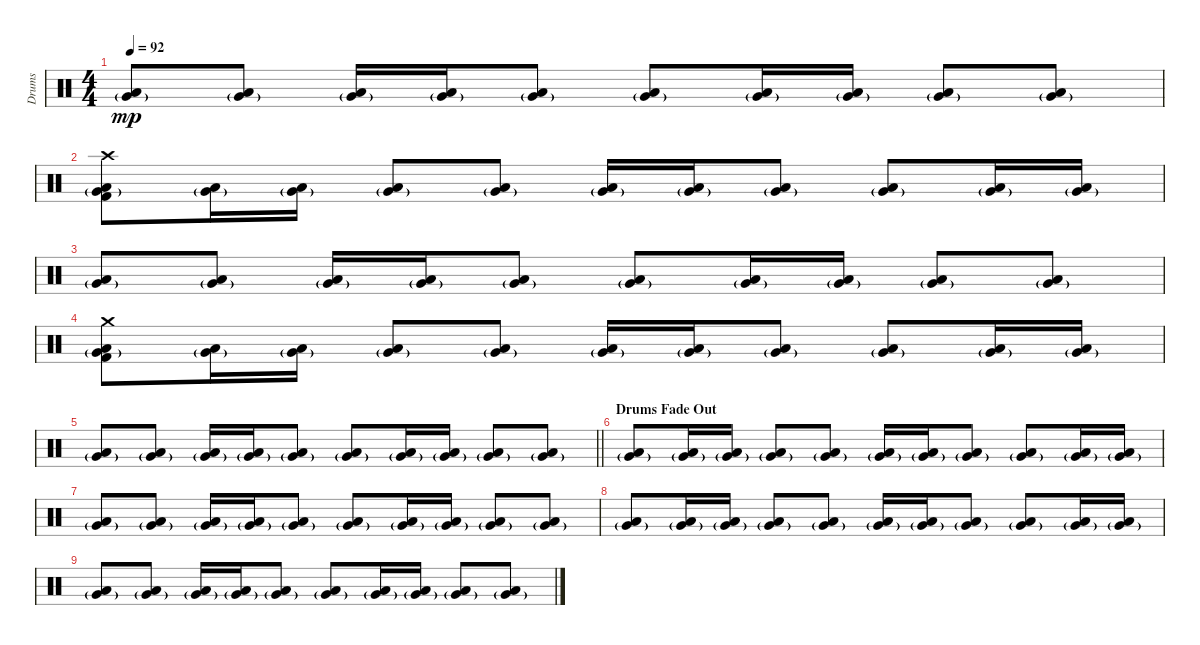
\track ("Drums" "Drums") {instrument percussion}
\staff {score}
\articulation defaults
\ts (4 4)
\tempo 92
\clef neutral
\ks c
("Very Low Tom (hit)"{g} "Low Floor Tom (hit)").8{dy mp} ("Very Low Tom (hit)"{g} "Low Floor Tom (hit)").8 ("Very Low Tom (hit)"{g} "Low Floor Tom (hit)").16 ("Very Low Tom (hit)"{g} "Low Floor Tom (hit)").16 ("Very Low Tom (hit)"{g} "Low Floor Tom (hit)").8 ("Very Low Tom (hit)"{g} "Low Floor Tom (hit)").8 ("Very Low Tom (hit)"{g} "Low Floor Tom (hit)").16 ("Very Low Tom (hit)"{g} "Low Floor Tom (hit)").16 ("Very Low Tom (hit)"{g} "Low Floor Tom (hit)").8 ("Very Low Tom (hit)"{g} "Low Floor Tom (hit)").8 |
("Kick (hit) 2" "Crash high (hit)" "Very Low Tom (hit)"{g} "Low Floor Tom (hit)").8 ("Very Low Tom (hit)"{g} "Low Floor Tom (hit)").16 ("Very Low Tom (hit)"{g} "Low Floor Tom (hit)").16 ("Very Low Tom (hit)"{g} "Low Floor Tom (hit)").8 ("Very Low Tom (hit)"{g} "Low Floor Tom (hit)").8 ("Very Low Tom (hit)"{g} "Low Floor Tom (hit)").16 ("Very Low Tom (hit)"{g} "Low Floor Tom (hit)").16 ("Very Low Tom (hit)"{g} "Low Floor Tom (hit)").8 ("Very Low Tom (hit)"{g} "Low Floor Tom (hit)").8 ("Very Low Tom (hit)"{g} "Low Floor Tom (hit)").16 ("Very Low Tom (hit)"{g} "Low Floor Tom (hit)").16 |
("Very Low Tom (hit)"{g} "Low Floor Tom (hit)").8 ("Very Low Tom (hit)"{g} "Low Floor Tom (hit)").8 ("Very Low Tom (hit)"{g} "Low Floor Tom (hit)").16 ("Very Low Tom (hit)"{g} "Low Floor Tom (hit)").16 ("Very Low Tom (hit)"{g} "Low Floor Tom (hit)").8 ("Very Low Tom (hit)"{g} "Low Floor Tom (hit)").8 ("Very Low Tom (hit)"{g} "Low Floor Tom (hit)").16 ("Very Low Tom (hit)"{g} "Low Floor Tom (hit)").16 ("Very Low Tom (hit)"{g} "Low Floor Tom (hit)").8 ("Very Low Tom (hit)"{g} "Low Floor Tom (hit)").8 |
("Kick (hit) 2" "Crash medium (hit)" "Very Low Tom (hit)"{g} "Low Floor Tom (hit)").8 ("Very Low Tom (hit)"{g} "Low Floor Tom (hit)").16 ("Very Low Tom (hit)"{g} "Low Floor Tom (hit)").16 ("Very Low Tom (hit)"{g} "Low Floor Tom (hit)").8 ("Very Low Tom (hit)"{g} "Low Floor Tom (hit)").8 ("Very Low Tom (hit)"{g} "Low Floor Tom (hit)").16 ("Very Low Tom (hit)"{g} "Low Floor Tom (hit)").16 ("Very Low Tom (hit)"{g} "Low Floor Tom (hit)").8 ("Very Low Tom (hit)"{g} "Low Floor Tom (hit)").8 ("Very Low Tom (hit)"{g} "Low Floor Tom (hit)").16 ("Very Low Tom (hit)"{g} "Low Floor Tom (hit)").16 |
\barLineRight lightlight
("Very Low Tom (hit)"{g} "Low Floor Tom (hit)").8 ("Very Low Tom (hit)"{g} "Low Floor Tom (hit)").8 ("Very Low Tom (hit)"{g} "Low Floor Tom (hit)").16 ("Very Low Tom (hit)"{g} "Low Floor Tom (hit)").16 ("Very Low Tom (hit)"{g} "Low Floor Tom (hit)").8 ("Very Low Tom (hit)"{g} "Low Floor Tom (hit)").8 ("Very Low Tom (hit)"{g} "Low Floor Tom (hit)").16 ("Very Low Tom (hit)"{g} "Low Floor Tom (hit)").16 ("Very Low Tom (hit)"{g} "Low Floor Tom (hit)").8 ("Very Low Tom (hit)"{g} "Low Floor Tom (hit)").8 |
\section ("" "Drums Fade Out")
("Very Low Tom (hit)"{g} "Low Floor Tom (hit)").8 ("Very Low Tom (hit)"{g} "Low Floor Tom (hit)").16 ("Very Low Tom (hit)"{g} "Low Floor Tom (hit)").16 ("Very Low Tom (hit)"{g} "Low Floor Tom (hit)").8 ("Very Low Tom (hit)"{g} "Low Floor Tom (hit)").8 ("Very Low Tom (hit)"{g} "Low Floor Tom (hit)").16 ("Very Low Tom (hit)"{g} "Low Floor Tom (hit)").16 ("Very Low Tom (hit)"{g} "Low Floor Tom (hit)").8 ("Very Low Tom (hit)"{g} "Low Floor Tom (hit)").8 ("Very Low Tom (hit)"{g} "Low Floor Tom (hit)").16 ("Very Low Tom (hit)"{g} "Low Floor Tom (hit)").16 |
("Very Low Tom (hit)"{g} "Low Floor Tom (hit)").8 ("Very Low Tom (hit)"{g} "Low Floor Tom (hit)").8 ("Very Low Tom (hit)"{g} "Low Floor Tom (hit)").16 ("Very Low Tom (hit)"{g} "Low Floor Tom (hit)").16 ("Very Low Tom (hit)"{g} "Low Floor Tom (hit)").8 ("Very Low Tom (hit)"{g} "Low Floor Tom (hit)").8 ("Very Low Tom (hit)"{g} "Low Floor Tom (hit)").16 ("Very Low Tom (hit)"{g} "Low Floor Tom (hit)").16 ("Very Low Tom (hit)"{g} "Low Floor Tom (hit)").8 ("Very Low Tom (hit)"{g} "Low Floor Tom (hit)").8 |
("Very Low Tom (hit)"{g} "Low Floor Tom (hit)").8 ("Very Low Tom (hit)"{g} "Low Floor Tom (hit)").16 ("Very Low Tom (hit)"{g} "Low Floor Tom (hit)").16 ("Very Low Tom (hit)"{g} "Low Floor Tom (hit)").8 ("Very Low Tom (hit)"{g} "Low Floor Tom (hit)").8 ("Very Low Tom (hit)"{g} "Low Floor Tom (hit)").16 ("Very Low Tom (hit)"{g} "Low Floor Tom (hit)").16 ("Very Low Tom (hit)"{g} "Low Floor Tom (hit)").8 ("Very Low Tom (hit)"{g} "Low Floor Tom (hit)").8 ("Very Low Tom (hit)"{g} "Low Floor Tom (hit)").16 ("Very Low Tom (hit)"{g} "Low Floor Tom (hit)").16 |
("Very Low Tom (hit)"{g} "Low Floor Tom (hit)").8 ("Very Low Tom (hit)"{g} "Low Floor Tom (hit)").8 ("Very Low Tom (hit)"{g} "Low Floor Tom (hit)").16 ("Very Low Tom (hit)"{g} "Low Floor Tom (hit)").16 ("Very Low Tom (hit)"{g} "Low Floor Tom (hit)").8 ("Very Low Tom (hit)"{g} "Low Floor Tom (hit)").8 ("Very Low Tom (hit)"{g} "Low Floor Tom (hit)").16 ("Very Low Tom (hit)"{g} "Low Floor Tom (hit)").16 ("Very Low Tom (hit)"{g} "Low Floor Tom (hit)").8 ("Very Low Tom (hit)"{g} "Low Floor Tom (hit)").8
